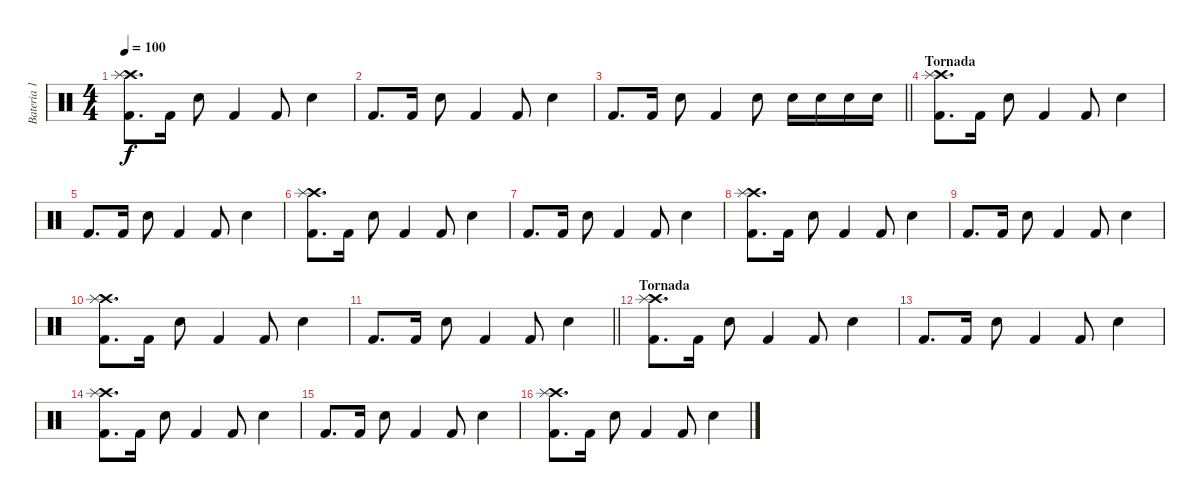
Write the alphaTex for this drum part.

\track ("Bateria 1" "Bateria 1") {instrument percussion}
\staff {score}
\articulation defaults
\ts (4 4)
\tempo 100
\clef neutral
\ks c
("Crash high (hit)" "Kick (hit) 2" "Splash (hit)").8{d dy f} "Kick (hit) 2".16 "Electric Snare (hit)".8 "Kick (hit) 2".4 "Kick (hit) 2".8 "Electric Snare (hit)".4 |
"Kick (hit) 2".8{d} "Kick (hit) 2".16 "Electric Snare (hit)".8 "Kick (hit) 2".4 "Kick (hit) 2".8 "Electric Snare (hit)".4 |
\barLineRight lightlight "Kick (hit) 2".8{d} "Kick (hit) 2".16 "Electric Snare (hit)".8 "Kick (hit) 2".4 "Electric Snare (hit)".8 "Electric Snare (hit)".16 "Electric Snare (hit)".16 "Electric Snare (hit)".16 "Electric Snare (hit)".16
|
\section ("" "Tornada")
("Crash high (hit)" "Kick (hit) 2" "Splash (hit)").8{d} "Kick (hit) 2".16 "Electric Snare (hit)".8 "Kick (hit) 2".4 "Kick (hit) 2".8 "Electric Snare (hit)".4 |
"Kick (hit) 2".8{d} "Kick (hit) 2".16 "Electric Snare (hit)".8 "Kick (hit) 2".4 "Kick (hit) 2".8 "Electric Snare (hit)".4 |
("Crash high (hit)" "Kick (hit) 2" "Splash (hit)").8{d} "Kick (hit) 2".16 "Electric Snare (hit)".8 "Kick (hit) 2".4 "Kick (hit) 2".8 "Electric Snare (hit)".4 |
"Kick (hit) 2".8{d} "Kick (hit) 2".16 "Electric Snare (hit)".8 "Kick (hit) 2".4 "Kick (hit) 2".8 "Electric Snare (hit)".4 |
("Crash high (hit)" "Kick (hit) 2" "Splash (hit)").8{d} "Kick (hit) 2".16 "Electric Snare (hit)".8 "Kick (hit) 2".4 "Kick (hit) 2".8 "Electric Snare (hit)".4 |
"Kick (hit) 2".8{d} "Kick (hit) 2".16 "Electric Snare (hit)".8 "Kick (hit) 2".4 "Kick (hit) 2".8 "Electric Snare (hit)".4 |
("Crash high (hit)" "Kick (hit) 2" "Splash (hit)").8{d} "Kick (hit) 2".16 "Electric Snare (hit)".8 "Kick (hit) 2".4 "Kick (hit) 2".8 "Electric Snare (hit)".4 |
\barLineRight lightlight "Kick (hit) 2".8{d} "Kick (hit) 2".16 "Electric Snare (hit)".8 "Kick (hit) 2".4 "Kick (hit) 2".8 "Electric Snare (hit)".4
|
\section ("" "Tornada")
("Crash high (hit)" "Kick (hit) 2" "Splash (hit)").8{d} "Kick (hit) 2".16 "Electric Snare (hit)".8 "Kick (hit) 2".4 "Kick (hit) 2".8 "Electric Snare (hit)".4 |
"Kick (hit) 2".8{d} "Kick (hit) 2".16 "Electric Snare (hit)".8 "Kick (hit) 2".4 "Kick (hit) 2".8 "Electric Snare (hit)".4 |
("Crash high (hit)" "Kick (hit) 2" "Splash (hit)").8{d} "Kick (hit) 2".16 "Electric Snare (hit)".8 "Kick (hit) 2".4 "Kick (hit) 2".8 "Electric Snare (hit)".4 |
"Kick (hit) 2".8{d} "Kick (hit) 2".16 "Electric Snare (hit)".8 "Kick (hit) 2".4 "Kick (hit) 2".8 "Electric Snare (hit)".4 |
("Crash high (hit)" "Kick (hit) 2" "Splash (hit)").8{d} "Kick (hit) 2".16 "Electric Snare (hit)".8 "Kick (hit) 2".4 "Kick (hit) 2".8 "Electric Snare (hit)".4
